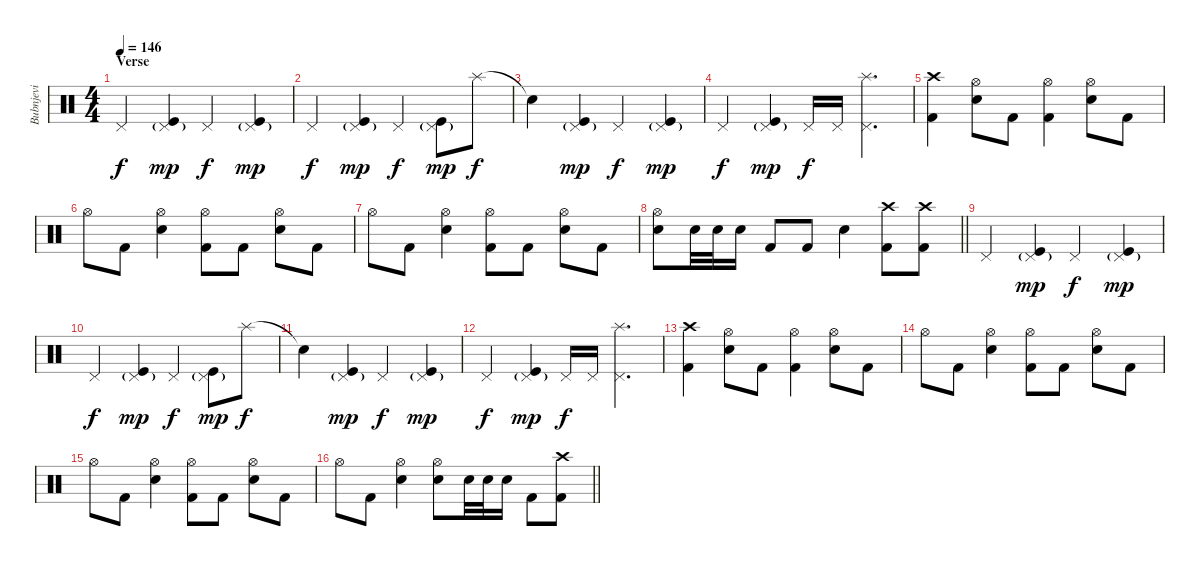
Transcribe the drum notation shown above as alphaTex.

\track ("Bubnjevi" "Bubnjevi") {instrument percussion}
\staff {score}
\articulation defaults
\ts (4 4)
\section ("" "Verse")
\tempo 146
\clef neutral
\ks c "Pedal Hi-Hat (hit)".4{dy f}
("Pedal Hi-Hat (hit)"{g} "Kick (hit)").4{dy mp} "Pedal Hi-Hat (hit)".4{dy f} ("Pedal Hi-Hat (hit)"{g} "Kick (hit)").4{dy mp} |
"Pedal Hi-Hat (hit)".4{dy f} ("Pedal Hi-Hat (hit)"{g} "Kick (hit)").4{dy mp} "Pedal Hi-Hat (hit)".4{dy f} ("Pedal Hi-Hat (hit)"{g} "Kick (hit)").8{dy mp} "Splash (hit)".8{dy f} |
"Snare (hit)"{t}.4 ("Pedal Hi-Hat (hit)"{g} "Kick (hit)").4{dy mp} "Pedal Hi-Hat (hit)".4{dy f} ("Pedal Hi-Hat (hit)"{g} "Kick (hit)").4{dy mp} |
"Pedal Hi-Hat (hit)".4{dy f} ("Pedal Hi-Hat (hit)"{g} "Kick (hit)").4{dy mp} "Pedal Hi-Hat (hit)".16{dy f} "Pedal Hi-Hat (hit)".16 ("Pedal Hi-Hat (hit)" "Splash (hit)").4{d} |
("Crash high (hit)" "Kick (hit) 2").4 ("Hi-Hat (open)" "Electric Snare (hit)").8 "Kick (hit) 2".8 ("Hi-Hat (open)" "Kick (hit) 2").4 ("Hi-Hat (open)" "Electric Snare (hit)").8 "Kick (hit) 2".8 |
"Hi-Hat (open)".8 "Kick (hit) 2".8 ("Hi-Hat (open)" "Electric Snare (hit)").4 ("Hi-Hat (open)" "Kick (hit) 2").8 "Kick (hit) 2".8 ("Hi-Hat (open)" "Electric Snare (hit)").8 "Kick (hit) 2".8 |
"Hi-Hat (open)".8 "Kick (hit) 2".8 ("Hi-Hat (open)" "Electric Snare (hit)").4 ("Hi-Hat (open)" "Kick (hit) 2").8 "Kick (hit) 2".8 ("Hi-Hat (open)" "Electric Snare (hit)").8 "Kick (hit) 2".8 |
\barLineRight lightlight
("Hi-Hat (open)" "Snare (hit) 2").8 "Snare (hit) 2".32 "Snare (hit) 2".32 "Snare (hit) 2".16 "Kick (hit) 2".8 "Kick (hit) 2".8 "Snare (hit) 2".4 ("Crash high (hit)" "Kick (hit) 2").8 ("Crash high (hit)" "Kick (hit) 2").8 |
"Pedal Hi-Hat (hit)".4 ("Pedal Hi-Hat (hit)"{g} "Kick (hit)").4{dy mp} "Pedal Hi-Hat (hit)".4{dy f} ("Pedal Hi-Hat (hit)"{g} "Kick (hit)").4{dy mp} |
"Pedal Hi-Hat (hit)".4{dy f} ("Pedal Hi-Hat (hit)"{g} "Kick (hit)").4{dy mp} "Pedal Hi-Hat (hit)".4{dy f} ("Pedal Hi-Hat (hit)"{g} "Kick (hit)").8{dy mp} "Splash (hit)".8{dy f} |
"Snare (hit)"{t}.4 ("Pedal Hi-Hat (hit)"{g} "Kick (hit)").4{dy mp} "Pedal Hi-Hat (hit)".4{dy f} ("Pedal Hi-Hat (hit)"{g} "Kick (hit)").4{dy mp} |
"Pedal Hi-Hat (hit)".4{dy f} ("Pedal Hi-Hat (hit)"{g} "Kick (hit)").4{dy mp} "Pedal Hi-Hat (hit)".16{dy f} "Pedal Hi-Hat (hit)".16 ("Pedal Hi-Hat (hit)" "Splash (hit)").4{d} |
("Crash high (hit)" "Kick (hit) 2").4 ("Hi-Hat (open)" "Electric Snare (hit)").8 "Kick (hit) 2".8 ("Hi-Hat (open)" "Kick (hit) 2").4 ("Hi-Hat (open)" "Electric Snare (hit)").8 "Kick (hit) 2".8 |
"Hi-Hat (open)".8 "Kick (hit) 2".8 ("Hi-Hat (open)" "Electric Snare (hit)").4 ("Hi-Hat (open)" "Kick (hit) 2").8 "Kick (hit) 2".8 ("Hi-Hat (open)" "Electric Snare (hit)").8 "Kick (hit) 2".8 |
"Hi-Hat (open)".8 "Kick (hit) 2".8 ("Hi-Hat (open)" "Electric Snare (hit)").4 ("Hi-Hat (open)" "Kick (hit) 2").8 "Kick (hit) 2".8 ("Hi-Hat (open)" "Electric Snare (hit)").8 "Kick (hit) 2".8 |
\barLineRight lightlight "Hi-Hat (open)".8 "Kick (hit) 2".8
("Hi-Hat (open)" "Electric Snare (hit)").4 ("Hi-Hat (open)" "Snare (hit) 2").8 "Snare (hit) 2".32 "Snare (hit) 2".32 "Snare (hit) 2".16 "Kick (hit) 2".8 ("Crash high (hit)" "Kick (hit) 2").8
